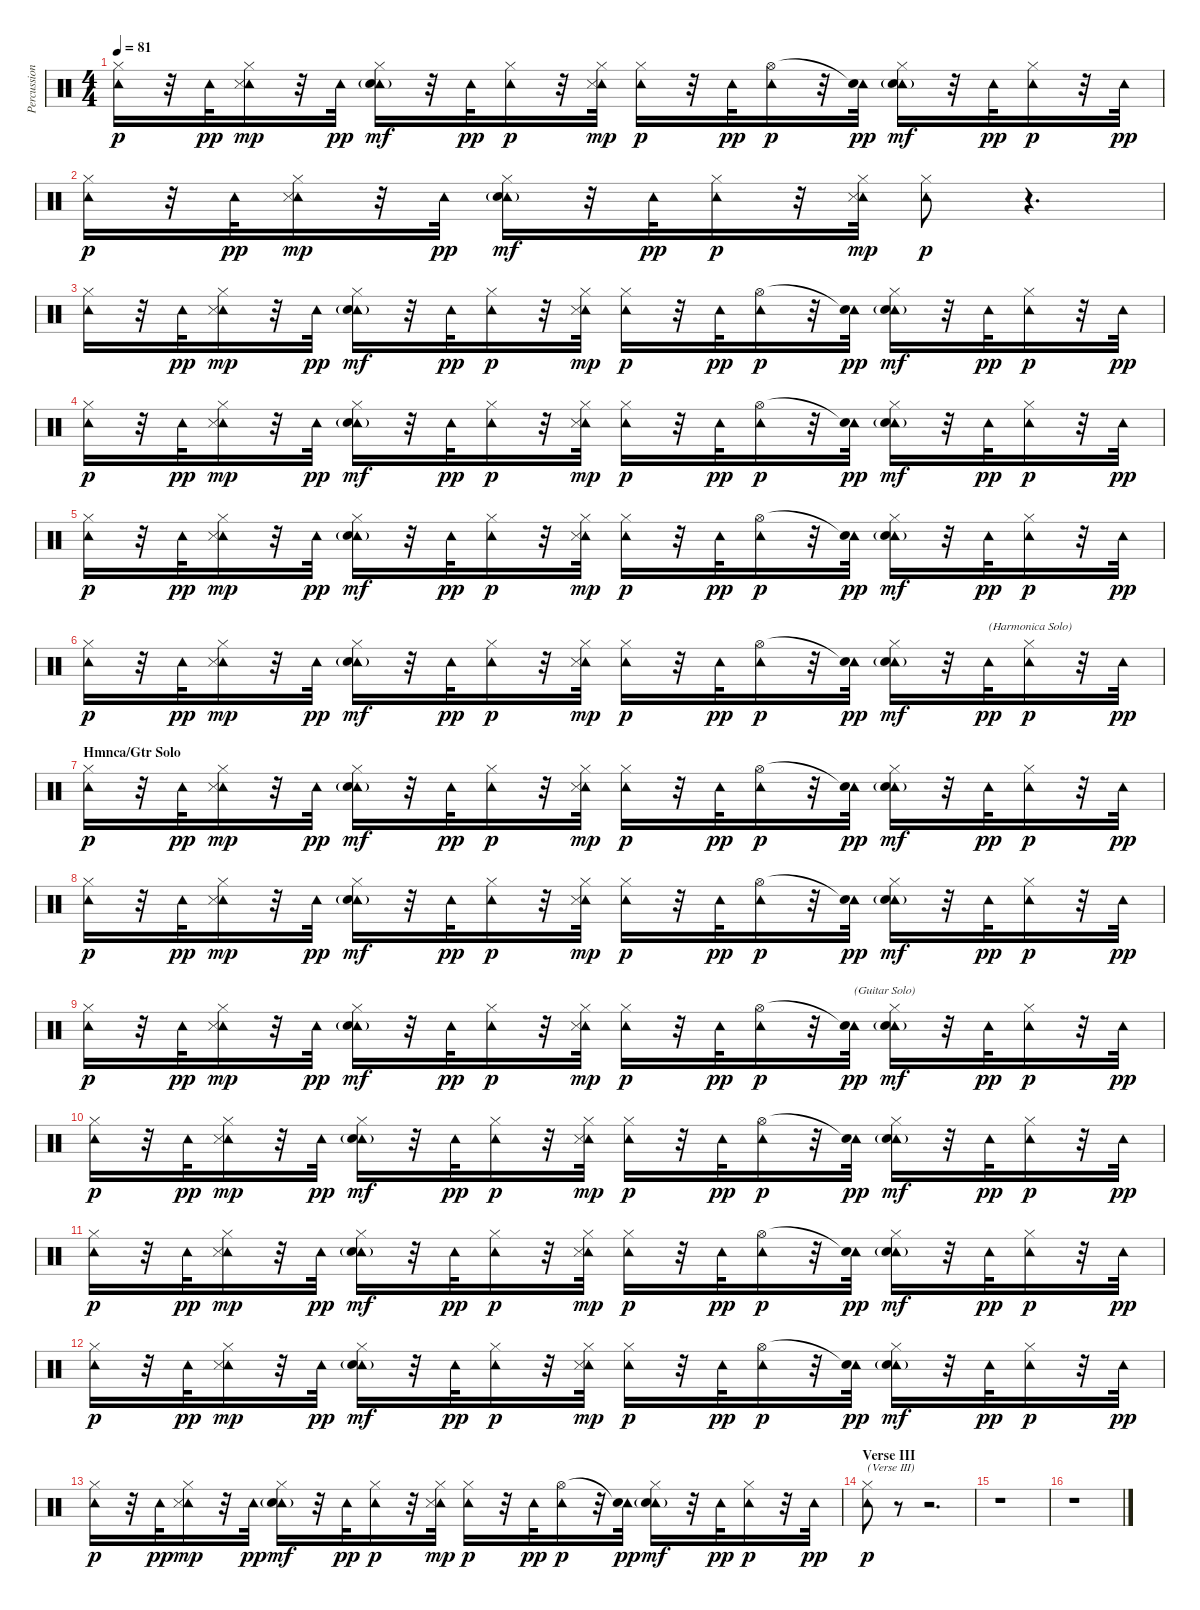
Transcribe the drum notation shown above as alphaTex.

\track ("Percussion" "Percussion") {instrument percussion}
\staff {score}
\articulation defaults
\ts (4 4)
\tempo 81
\clef neutral
\ks c
("Tambourine (hit)" "Hi-Hat (closed)").16{dy p} r.32 "Tambourine (hit)".32{dy pp} ("Tambourine (hit)" "Hi-Hat (closed)" "Snare (side stick) 3").16{dy mp} r.32 "Tambourine (hit)".32{dy pp} ("Tambourine (hit)" "Hi-Hat (closed)" "Snare (hit) 2"{g}).16{dy mf} r.32 "Tambourine (hit)".32{dy pp} ("Tambourine (hit)" "Hi-Hat (closed)").16{dy p} r.32 ("Tambourine (hit)" "Hi-Hat (closed)" "Snare (side stick) 3").32{dy mp} ("Tambourine (hit)" "Hi-Hat (closed)").16{dy p} r.32 "Tambourine (hit)".32{dy pp} ("Tambourine (hit)" "Hi-Hat (open)").16{dy p} r.32 ("Tambourine (hit)" "Snare (hit)"{t}).32{dy pp} ("Tambourine (hit)" "Hi-Hat (closed)" "Snare (hit) 2"{g}).16{dy mf} r.32 "Tambourine (hit)".32{dy pp} ("Tambourine (hit)" "Hi-Hat (closed)").16{dy p} r.32 "Tambourine (hit)".32{dy pp} |
("Tambourine (hit)" "Hi-Hat (closed)").16{dy p} r.32 "Tambourine (hit)".32{dy pp} ("Tambourine (hit)" "Hi-Hat (closed)" "Snare (side stick) 3").16{dy mp} r.32 "Tambourine (hit)".32{dy pp} ("Tambourine (hit)" "Hi-Hat (closed)" "Snare (hit) 2"{g}).16{dy mf} r.32 "Tambourine (hit)".32{dy pp} ("Tambourine (hit)" "Hi-Hat (closed)").16{dy p} r.32 ("Tambourine (hit)" "Hi-Hat (closed)" "Snare (side stick) 3").32{dy mp} ("Tambourine (hit)" "Hi-Hat (closed)").8{dy p} r.4{d} |
("Tambourine (hit)" "Hi-Hat (closed)").16 r.32 "Tambourine (hit)".32{dy pp} ("Tambourine (hit)" "Hi-Hat (closed)" "Snare (side stick) 3").16{dy mp} r.32 "Tambourine (hit)".32{dy pp} ("Tambourine (hit)" "Hi-Hat (closed)" "Snare (hit) 2"{g}).16{dy mf} r.32 "Tambourine (hit)".32{dy pp} ("Tambourine (hit)" "Hi-Hat (closed)").16{dy p} r.32 ("Tambourine (hit)" "Hi-Hat (closed)" "Snare (side stick) 3").32{dy mp} ("Tambourine (hit)" "Hi-Hat (closed)").16{dy p} r.32 "Tambourine (hit)".32{dy pp} ("Tambourine (hit)" "Hi-Hat (open)").16{dy p} r.32 ("Tambourine (hit)" "Snare (hit)"{t}).32{dy pp} ("Tambourine (hit)" "Hi-Hat (closed)" "Snare (hit) 2"{g}).16{dy mf} r.32 "Tambourine (hit)".32{dy pp} ("Tambourine (hit)" "Hi-Hat (closed)").16{dy p} r.32 "Tambourine (hit)".32{dy pp} |
("Tambourine (hit)" "Hi-Hat (closed)").16{dy p} r.32 "Tambourine (hit)".32{dy pp} ("Tambourine (hit)" "Hi-Hat (closed)" "Snare (side stick) 3").16{dy mp} r.32 "Tambourine (hit)".32{dy pp} ("Tambourine (hit)" "Hi-Hat (closed)" "Snare (hit) 2"{g}).16{dy mf} r.32 "Tambourine (hit)".32{dy pp} ("Tambourine (hit)" "Hi-Hat (closed)").16{dy p} r.32 ("Tambourine (hit)" "Hi-Hat (closed)" "Snare (side stick) 3").32{dy mp} ("Tambourine (hit)" "Hi-Hat (closed)").16{dy p} r.32 "Tambourine (hit)".32{dy pp} ("Tambourine (hit)" "Hi-Hat (open)").16{dy p} r.32 ("Tambourine (hit)" "Snare (hit)"{t}).32{dy pp} ("Tambourine (hit)" "Hi-Hat (closed)" "Snare (hit) 2"{g}).16{dy mf} r.32 "Tambourine (hit)".32{dy pp} ("Tambourine (hit)" "Hi-Hat (closed)").16{dy p} r.32 "Tambourine (hit)".32{dy pp} |
("Tambourine (hit)" "Hi-Hat (closed)").16{dy p} r.32 "Tambourine (hit)".32{dy pp} ("Tambourine (hit)" "Hi-Hat (closed)" "Snare (side stick) 3").16{dy mp} r.32 "Tambourine (hit)".32{dy pp} ("Tambourine (hit)" "Hi-Hat (closed)" "Snare (hit) 2"{g}).16{dy mf} r.32 "Tambourine (hit)".32{dy pp} ("Tambourine (hit)" "Hi-Hat (closed)").16{dy p} r.32 ("Tambourine (hit)" "Hi-Hat (closed)" "Snare (side stick) 3").32{dy mp} ("Tambourine (hit)" "Hi-Hat (closed)").16{dy p} r.32 "Tambourine (hit)".32{dy pp} ("Tambourine (hit)" "Hi-Hat (open)").16{dy p} r.32 ("Tambourine (hit)" "Snare (hit)"{t}).32{dy pp} ("Tambourine (hit)" "Hi-Hat (closed)" "Snare (hit) 2"{g}).16{dy mf} r.32 "Tambourine (hit)".32{dy pp} ("Tambourine (hit)" "Hi-Hat (closed)").16{dy p} r.32 "Tambourine (hit)".32{dy pp} |
("Tambourine (hit)" "Hi-Hat (closed)").16{dy p} r.32 "Tambourine (hit)".32{dy pp} ("Tambourine (hit)" "Hi-Hat (closed)" "Snare (side stick) 3").16{dy mp} r.32 "Tambourine (hit)".32{dy pp} ("Tambourine (hit)" "Hi-Hat (closed)" "Snare (hit) 2"{g}).16{dy mf} r.32 "Tambourine (hit)".32{dy pp} ("Tambourine (hit)" "Hi-Hat (closed)").16{dy p} r.32 ("Tambourine (hit)" "Hi-Hat (closed)" "Snare (side stick) 3").32{dy mp} ("Tambourine (hit)" "Hi-Hat (closed)").16{dy p} r.32 "Tambourine (hit)".32{dy pp} ("Tambourine (hit)" "Hi-Hat (open)").16{dy p} r.32 ("Tambourine (hit)" "Snare (hit)"{t}).32{dy pp} ("Tambourine (hit)" "Hi-Hat (closed)" "Snare (hit) 2"{g}).16{dy mf} r.32 "Tambourine (hit)".32{txt "(Harmonica Solo)" dy pp} ("Tambourine (hit)" "Hi-Hat (closed)").16{dy p} r.32 "Tambourine (hit)".32{dy pp} |
\section ("" "Hmnca/Gtr Solo")
("Tambourine (hit)" "Hi-Hat (closed)").16{dy p} r.32 "Tambourine (hit)".32{dy pp} ("Tambourine (hit)" "Hi-Hat (closed)" "Snare (side stick) 3").16{dy mp} r.32 "Tambourine (hit)".32{dy pp} ("Tambourine (hit)" "Hi-Hat (closed)" "Snare (hit) 2"{g}).16{dy mf} r.32 "Tambourine (hit)".32{dy pp} ("Tambourine (hit)" "Hi-Hat (closed)").16{dy p} r.32 ("Tambourine (hit)" "Hi-Hat (closed)" "Snare (side stick) 3").32{dy mp} ("Tambourine (hit)" "Hi-Hat (closed)").16{dy p} r.32 "Tambourine (hit)".32{dy pp} ("Tambourine (hit)" "Hi-Hat (open)").16{dy p} r.32 ("Tambourine (hit)" "Snare (hit)"{t}).32{dy pp} ("Tambourine (hit)" "Hi-Hat (closed)" "Snare (hit) 2"{g}).16{dy mf} r.32 "Tambourine (hit)".32{dy pp} ("Tambourine (hit)" "Hi-Hat (closed)").16{dy p} r.32 "Tambourine (hit)".32{dy pp} |
("Tambourine (hit)" "Hi-Hat (closed)").16{dy p} r.32 "Tambourine (hit)".32{dy pp} ("Tambourine (hit)" "Hi-Hat (closed)" "Snare (side stick) 3").16{dy mp} r.32 "Tambourine (hit)".32{dy pp} ("Tambourine (hit)" "Hi-Hat (closed)" "Snare (hit) 2"{g}).16{dy mf} r.32 "Tambourine (hit)".32{dy pp} ("Tambourine (hit)" "Hi-Hat (closed)").16{dy p} r.32 ("Tambourine (hit)" "Hi-Hat (closed)" "Snare (side stick) 3").32{dy mp} ("Tambourine (hit)" "Hi-Hat (closed)").16{dy p} r.32 "Tambourine (hit)".32{dy pp} ("Tambourine (hit)" "Hi-Hat (open)").16{dy p} r.32 ("Tambourine (hit)" "Snare (hit)"{t}).32{dy pp} ("Tambourine (hit)" "Hi-Hat (closed)" "Snare (hit) 2"{g}).16{dy mf} r.32 "Tambourine (hit)".32{dy pp} ("Tambourine (hit)" "Hi-Hat (closed)").16{dy p} r.32 "Tambourine (hit)".32{dy pp} |
("Tambourine (hit)" "Hi-Hat (closed)").16{dy p} r.32 "Tambourine (hit)".32{dy pp} ("Tambourine (hit)" "Hi-Hat (closed)" "Snare (side stick) 3").16{dy mp} r.32 "Tambourine (hit)".32{dy pp} ("Tambourine (hit)" "Hi-Hat (closed)" "Snare (hit) 2"{g}).16{dy mf} r.32 "Tambourine (hit)".32{dy pp} ("Tambourine (hit)" "Hi-Hat (closed)").16{dy p} r.32 ("Tambourine (hit)" "Hi-Hat (closed)" "Snare (side stick) 3").32{dy mp} ("Tambourine (hit)" "Hi-Hat (closed)").16{dy p} r.32 "Tambourine (hit)".32{dy pp} ("Tambourine (hit)" "Hi-Hat (open)").16{dy p} r.32 ("Tambourine (hit)" "Snare (hit)"{t}).32{txt "(Guitar Solo)" dy pp} ("Tambourine (hit)" "Hi-Hat (closed)" "Snare (hit) 2"{g}).16{dy mf} r.32 "Tambourine (hit)".32{dy pp} ("Tambourine (hit)" "Hi-Hat (closed)").16{dy p} r.32 "Tambourine (hit)".32{dy pp} |
("Tambourine (hit)" "Hi-Hat (closed)").16{dy p} r.32 "Tambourine (hit)".32{dy pp} ("Tambourine (hit)" "Hi-Hat (closed)" "Snare (side stick) 3").16{dy mp} r.32 "Tambourine (hit)".32{dy pp} ("Tambourine (hit)" "Hi-Hat (closed)" "Snare (hit) 2"{g}).16{dy mf} r.32 "Tambourine (hit)".32{dy pp} ("Tambourine (hit)" "Hi-Hat (closed)").16{dy p} r.32 ("Tambourine (hit)" "Hi-Hat (closed)" "Snare (side stick) 3").32{dy mp} ("Tambourine (hit)" "Hi-Hat (closed)").16{dy p} r.32 "Tambourine (hit)".32{dy pp} ("Tambourine (hit)" "Hi-Hat (open)").16{dy p} r.32 ("Tambourine (hit)" "Snare (hit)"{t}).32{dy pp} ("Tambourine (hit)" "Hi-Hat (closed)" "Snare (hit) 2"{g}).16{dy mf} r.32 "Tambourine (hit)".32{dy pp} ("Tambourine (hit)" "Hi-Hat (closed)").16{dy p} r.32 "Tambourine (hit)".32{dy pp} |
("Tambourine (hit)" "Hi-Hat (closed)").16{dy p} r.32 "Tambourine (hit)".32{dy pp} ("Tambourine (hit)" "Hi-Hat (closed)" "Snare (side stick) 3").16{dy mp} r.32 "Tambourine (hit)".32{dy pp} ("Tambourine (hit)" "Hi-Hat (closed)" "Snare (hit) 2"{g}).16{dy mf} r.32 "Tambourine (hit)".32{dy pp} ("Tambourine (hit)" "Hi-Hat (closed)").16{dy p} r.32 ("Tambourine (hit)" "Hi-Hat (closed)" "Snare (side stick) 3").32{dy mp} ("Tambourine (hit)" "Hi-Hat (closed)").16{dy p} r.32 "Tambourine (hit)".32{dy pp} ("Tambourine (hit)" "Hi-Hat (open)").16{dy p} r.32 ("Tambourine (hit)" "Snare (hit)"{t}).32{dy pp} ("Tambourine (hit)" "Hi-Hat (closed)" "Snare (hit) 2"{g}).16{dy mf} r.32 "Tambourine (hit)".32{dy pp} ("Tambourine (hit)" "Hi-Hat (closed)").16{dy p} r.32 "Tambourine (hit)".32{dy pp} |
("Tambourine (hit)" "Hi-Hat (closed)").16{dy p} r.32 "Tambourine (hit)".32{dy pp} ("Tambourine (hit)" "Hi-Hat (closed)" "Snare (side stick) 3").16{dy mp} r.32 "Tambourine (hit)".32{dy pp} ("Tambourine (hit)" "Hi-Hat (closed)" "Snare (hit) 2"{g}).16{dy mf} r.32 "Tambourine (hit)".32{dy pp} ("Tambourine (hit)" "Hi-Hat (closed)").16{dy p} r.32 ("Tambourine (hit)" "Hi-Hat (closed)" "Snare (side stick) 3").32{dy mp} ("Tambourine (hit)" "Hi-Hat (closed)").16{dy p} r.32 "Tambourine (hit)".32{dy pp} ("Tambourine (hit)" "Hi-Hat (open)").16{dy p} r.32 ("Tambourine (hit)" "Snare (hit)"{t}).32{dy pp} ("Tambourine (hit)" "Hi-Hat (closed)" "Snare (hit) 2"{g}).16{dy mf} r.32 "Tambourine (hit)".32{dy pp} ("Tambourine (hit)" "Hi-Hat (closed)").16{dy p} r.32 "Tambourine (hit)".32{dy pp} |
("Tambourine (hit)" "Hi-Hat (closed)").16{dy p} r.32 "Tambourine (hit)".32{dy pp} ("Tambourine (hit)" "Hi-Hat (closed)" "Snare (side stick) 3").16{dy mp} r.32 "Tambourine (hit)".32{dy pp} ("Tambourine (hit)" "Hi-Hat (closed)" "Snare (hit) 2"{g}).16{dy mf} r.32 "Tambourine (hit)".32{dy pp} ("Tambourine (hit)" "Hi-Hat (closed)").16{dy p} r.32 ("Tambourine (hit)" "Hi-Hat (closed)" "Snare (side stick) 3").32{dy mp} ("Tambourine (hit)" "Hi-Hat (closed)").16{dy p} r.32 "Tambourine (hit)".32{dy pp} ("Tambourine (hit)" "Hi-Hat (open)").16{dy p} r.32 ("Tambourine (hit)" "Snare (hit)"{t}).32{dy pp} ("Tambourine (hit)" "Hi-Hat (closed)" "Snare (hit) 2"{g}).16{dy mf} r.32 "Tambourine (hit)".32{dy pp} ("Tambourine (hit)" "Hi-Hat (closed)").16{dy p} r.32 "Tambourine (hit)".32{dy pp} |
\section ("" "Verse III")
("Tambourine (hit)" "Hi-Hat (closed)").8{txt "(Verse III)" dy p} r.8 r.2{d} |
r.1 |
r.1
